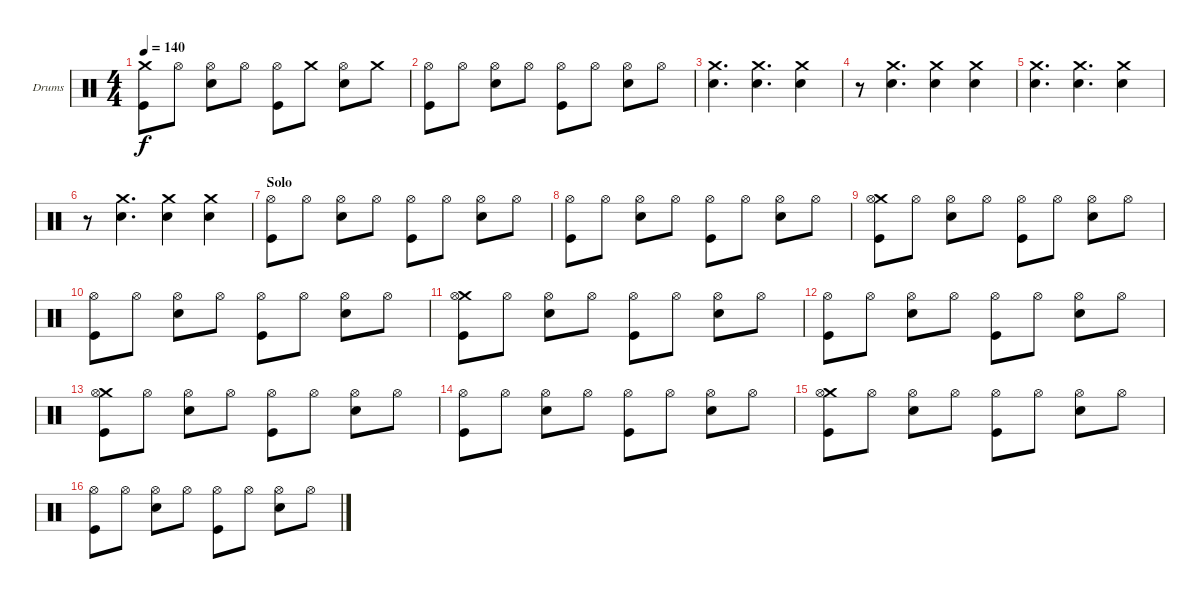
\bracketExtendMode groupsimilarinstruments
\firstSystemTrackNameOrientation horizontal
\otherSystemsTrackNameOrientation horizontal
\track ("Drumkit" "Drums") {instrument percussion}
\staff {score}
\articulation defaults
\ts (4 4)
\tempo 140
\clef neutral
\ks c
("Crash medium (hit)" "Kick (hit)").8{dy f} "Hi-Hat (open)".8 ("Hi-Hat (open)" "Snare (hit) 2").8 "Hi-Hat (open)".8 ("Hi-Hat (open)" "Kick (hit)").8 "Crash medium (hit)".8 ("Hi-Hat (open)" "Snare (hit) 2").8 "Crash medium (hit)".8 |
("Hi-Hat (open)" "Kick (hit)").8 "Hi-Hat (open)".8 ("Hi-Hat (open)" "Snare (hit) 2").8 "Hi-Hat (open)".8 ("Hi-Hat (open)" "Kick (hit)").8 "Hi-Hat (open)".8 ("Hi-Hat (open)" "Snare (hit) 2").8 "Hi-Hat (open)".8 |
("Crash medium (hit)" "Snare (hit) 2").4{d} ("Crash medium (hit)" "Snare (hit) 2").4{d} ("Crash medium (hit)" "Snare (hit) 2").4 |
r.8 ("Crash medium (hit)" "Snare (hit) 2").4{d} ("Crash medium (hit)" "Snare (hit) 2").4 ("Crash medium (hit)" "Snare (hit) 2").4 |
("Crash medium (hit)" "Snare (hit) 2").4{d} ("Crash medium (hit)" "Snare (hit) 2").4{d} ("Crash medium (hit)" "Snare (hit) 2").4 |
r.8 ("Crash medium (hit)" "Snare (hit) 2").4{d} ("Crash medium (hit)" "Snare (hit) 2").4 ("Crash medium (hit)" "Snare (hit) 2").4 |
\section ("" "Solo")
("Hi-Hat (open)" "Kick (hit)").8 "Hi-Hat (open)".8 ("Hi-Hat (open)" "Snare (hit) 2").8 "Hi-Hat (open)".8 ("Hi-Hat (open)" "Kick (hit)").8 "Hi-Hat (open)".8 ("Hi-Hat (open)" "Snare (hit) 2").8 "Hi-Hat (open)".8 |
("Hi-Hat (open)" "Kick (hit)").8 "Hi-Hat (open)".8 ("Hi-Hat (open)" "Snare (hit) 2").8 "Hi-Hat (open)".8 ("Hi-Hat (open)" "Kick (hit)").8 "Hi-Hat (open)".8 ("Hi-Hat (open)" "Snare (hit) 2").8 "Hi-Hat (open)".8 |
("Crash medium (hit)" "Hi-Hat (open)" "Kick (hit)").8 "Hi-Hat (open)".8 ("Hi-Hat (open)" "Snare (hit) 2").8 "Hi-Hat (open)".8 ("Hi-Hat (open)" "Kick (hit)").8 "Hi-Hat (open)".8 ("Hi-Hat (open)" "Snare (hit) 2").8 "Hi-Hat (open)".8 |
("Hi-Hat (open)" "Kick (hit)").8 "Hi-Hat (open)".8 ("Hi-Hat (open)" "Snare (hit) 2").8 "Hi-Hat (open)".8 ("Hi-Hat (open)" "Kick (hit)").8 "Hi-Hat (open)".8 ("Hi-Hat (open)" "Snare (hit) 2").8 "Hi-Hat (open)".8 |
("Crash medium (hit)" "Hi-Hat (open)" "Kick (hit)").8 "Hi-Hat (open)".8 ("Hi-Hat (open)" "Snare (hit) 2").8 "Hi-Hat (open)".8 ("Hi-Hat (open)" "Kick (hit)").8 "Hi-Hat (open)".8 ("Hi-Hat (open)" "Snare (hit) 2").8 "Hi-Hat (open)".8 |
("Hi-Hat (open)" "Kick (hit)").8 "Hi-Hat (open)".8 ("Hi-Hat (open)" "Snare (hit) 2").8 "Hi-Hat (open)".8 ("Hi-Hat (open)" "Kick (hit)").8 "Hi-Hat (open)".8 ("Hi-Hat (open)" "Snare (hit) 2").8 "Hi-Hat (open)".8 |
("Crash medium (hit)" "Hi-Hat (open)" "Kick (hit)").8 "Hi-Hat (open)".8 ("Hi-Hat (open)" "Snare (hit) 2").8 "Hi-Hat (open)".8 ("Hi-Hat (open)" "Kick (hit)").8 "Hi-Hat (open)".8 ("Hi-Hat (open)" "Snare (hit) 2").8 "Hi-Hat (open)".8 |
("Hi-Hat (open)" "Kick (hit)").8 "Hi-Hat (open)".8 ("Hi-Hat (open)" "Snare (hit) 2").8 "Hi-Hat (open)".8 ("Hi-Hat (open)" "Kick (hit)").8 "Hi-Hat (open)".8 ("Hi-Hat (open)" "Snare (hit) 2").8 "Hi-Hat (open)".8 |
("Crash medium (hit)" "Hi-Hat (open)" "Kick (hit)").8 "Hi-Hat (open)".8 ("Hi-Hat (open)" "Snare (hit) 2").8 "Hi-Hat (open)".8 ("Hi-Hat (open)" "Kick (hit)").8 "Hi-Hat (open)".8 ("Hi-Hat (open)" "Snare (hit) 2").8 "Hi-Hat (open)".8 |
("Hi-Hat (open)" "Kick (hit)").8 "Hi-Hat (open)".8 ("Hi-Hat (open)" "Snare (hit) 2").8 "Hi-Hat (open)".8 ("Hi-Hat (open)" "Kick (hit)").8 "Hi-Hat (open)".8 ("Hi-Hat (open)" "Snare (hit) 2").8 "Hi-Hat (open)".8
